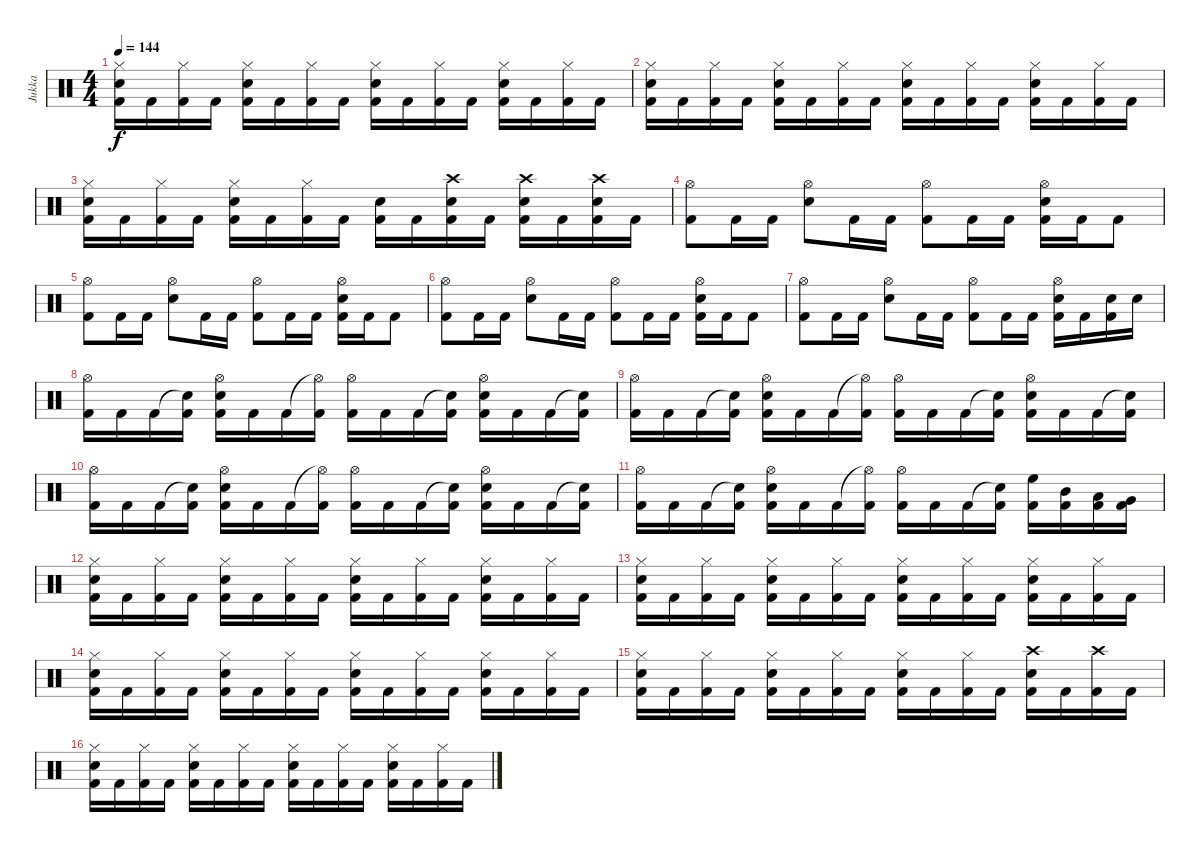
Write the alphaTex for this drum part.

\track ("Jukka" "Jukka") {instrument percussion}
\staff {score}
\articulation defaults
\ts (4 4)
\tempo 144
\clef neutral
\ks c
("Hi-Hat (closed)" "Electric Snare (hit)" "Kick (hit) 2").16{dy f} "Kick (hit) 2".16 ("Hi-Hat (closed)" "Kick (hit) 2").16 "Kick (hit) 2".16 ("Hi-Hat (closed)" "Electric Snare (hit)" "Kick (hit) 2").16 "Kick (hit) 2".16 ("Hi-Hat (closed)" "Kick (hit) 2").16 "Kick (hit) 2".16 ("Hi-Hat (closed)" "Electric Snare (hit)" "Kick (hit) 2").16 "Kick (hit) 2".16 ("Hi-Hat (closed)" "Kick (hit) 2").16 "Kick (hit) 2".16 ("Hi-Hat (closed)" "Electric Snare (hit)" "Kick (hit) 2").16 "Kick (hit) 2".16 ("Hi-Hat (closed)" "Kick (hit) 2").16 "Kick (hit) 2".16 |
("Hi-Hat (closed)" "Electric Snare (hit)" "Kick (hit) 2").16 "Kick (hit) 2".16 ("Hi-Hat (closed)" "Kick (hit) 2").16 "Kick (hit) 2".16 ("Hi-Hat (closed)" "Electric Snare (hit)" "Kick (hit) 2").16 "Kick (hit) 2".16 ("Hi-Hat (closed)" "Kick (hit) 2").16 "Kick (hit) 2".16 ("Hi-Hat (closed)" "Electric Snare (hit)" "Kick (hit) 2").16 "Kick (hit) 2".16 ("Hi-Hat (closed)" "Kick (hit) 2").16 "Kick (hit) 2".16 ("Hi-Hat (closed)" "Electric Snare (hit)" "Kick (hit) 2").16 "Kick (hit) 2".16 ("Hi-Hat (closed)" "Kick (hit) 2").16 "Kick (hit) 2".16 |
("Hi-Hat (closed)" "Electric Snare (hit)" "Kick (hit) 2").16 "Kick (hit) 2".16 ("Hi-Hat (closed)" "Kick (hit) 2").16 "Kick (hit) 2".16 ("Hi-Hat (closed)" "Electric Snare (hit)" "Kick (hit) 2").16 "Kick (hit) 2".16 ("Hi-Hat (closed)" "Kick (hit) 2").16 "Kick (hit) 2".16 ("Electric Snare (hit)" "Kick (hit) 2").16 "Kick (hit) 2".16 ("Crash high (hit)" "Electric Snare (hit)" "Kick (hit) 2").16 "Kick (hit) 2".16 ("Crash high (hit)" "Electric Snare (hit)" "Kick (hit) 2").16 "Kick (hit) 2".16 ("Crash high (hit)" "Electric Snare (hit)" "Kick (hit) 2").16 "Kick (hit) 2".16 |
("Hi-Hat (open)" "Kick (hit) 2").8 "Kick (hit) 2".16 "Kick (hit) 2".16 ("Hi-Hat (open)" "Electric Snare (hit)").8 "Kick (hit) 2".16 "Kick (hit) 2".16 ("Hi-Hat (open)" "Kick (hit) 2").8 "Kick (hit) 2".16 "Kick (hit) 2".16 ("Hi-Hat (open)" "Electric Snare (hit)" "Kick (hit) 2").16 "Kick (hit) 2".16 "Kick (hit) 2".8 |
("Hi-Hat (open)" "Kick (hit) 2").8 "Kick (hit) 2".16 "Kick (hit) 2".16 ("Hi-Hat (open)" "Electric Snare (hit)").8 "Kick (hit) 2".16 "Kick (hit) 2".16 ("Hi-Hat (open)" "Kick (hit) 2").8 "Kick (hit) 2".16 "Kick (hit) 2".16 ("Hi-Hat (open)" "Electric Snare (hit)" "Kick (hit) 2").16 "Kick (hit) 2".16 "Kick (hit) 2".8 |
("Hi-Hat (open)" "Kick (hit) 2").8 "Kick (hit) 2".16 "Kick (hit) 2".16 ("Hi-Hat (open)" "Electric Snare (hit)").8 "Kick (hit) 2".16 "Kick (hit) 2".16 ("Hi-Hat (open)" "Kick (hit) 2").8 "Kick (hit) 2".16 "Kick (hit) 2".16 ("Hi-Hat (open)" "Electric Snare (hit)" "Kick (hit) 2").16 "Kick (hit) 2".16 "Kick (hit) 2".8 |
("Hi-Hat (open)" "Kick (hit) 2").8 "Kick (hit) 2".16 "Kick (hit) 2".16 ("Hi-Hat (open)" "Electric Snare (hit)").8 "Kick (hit) 2".16 "Kick (hit) 2".16 ("Hi-Hat (open)" "Kick (hit) 2").8 "Kick (hit) 2".16 "Kick (hit) 2".16 ("Hi-Hat (open)" "Electric Snare (hit)" "Kick (hit) 2").16 "Kick (hit) 2".16 ("Electric Snare (hit)" "Kick (hit) 2").16 "Electric Snare (hit)".16 |
("Hi-Hat (open)" "Kick (hit) 2").16 "Kick (hit) 2".16 "Kick (hit) 2".16 ("Snare (hit)"{t} "Kick (hit) 2").16 ("Hi-Hat (open)" "Electric Snare (hit)" "Kick (hit) 2").16 "Kick (hit) 2".16 "Kick (hit) 2".16 ("Hi-Hat (open)"{t} "Kick (hit) 2").16 ("Hi-Hat (open)" "Kick (hit) 2").16 "Kick (hit) 2".16 "Kick (hit) 2".16 ("Snare (hit)"{t} "Kick (hit) 2").16 ("Hi-Hat (open)" "Electric Snare (hit)" "Kick (hit) 2").16 "Kick (hit) 2".16 "Kick (hit) 2".16 ("Snare (hit)"{t} "Kick (hit) 2").16 |
("Hi-Hat (open)" "Kick (hit) 2").16 "Kick (hit) 2".16 "Kick (hit) 2".16 ("Snare (hit)"{t} "Kick (hit) 2").16 ("Hi-Hat (open)" "Electric Snare (hit)" "Kick (hit) 2").16 "Kick (hit) 2".16 "Kick (hit) 2".16 ("Hi-Hat (open)"{t} "Kick (hit) 2").16 ("Hi-Hat (open)" "Kick (hit) 2").16 "Kick (hit) 2".16 "Kick (hit) 2".16 ("Snare (hit)"{t} "Kick (hit) 2").16 ("Hi-Hat (open)" "Electric Snare (hit)" "Kick (hit) 2").16 "Kick (hit) 2".16 "Kick (hit) 2".16 ("Snare (hit)"{t} "Kick (hit) 2").16 |
("Hi-Hat (open)" "Kick (hit) 2").16 "Kick (hit) 2".16 "Kick (hit) 2".16 ("Snare (hit)"{t} "Kick (hit) 2").16 ("Hi-Hat (open)" "Electric Snare (hit)" "Kick (hit) 2").16 "Kick (hit) 2".16 "Kick (hit) 2".16 ("Hi-Hat (open)"{t} "Kick (hit) 2").16 ("Hi-Hat (open)" "Kick (hit) 2").16 "Kick (hit) 2".16 "Kick (hit) 2".16 ("Snare (hit)"{t} "Kick (hit) 2").16 ("Hi-Hat (open)" "Electric Snare (hit)" "Kick (hit) 2").16 "Kick (hit) 2".16 "Kick (hit) 2".16 ("Snare (hit)"{t} "Kick (hit) 2").16 |
("Hi-Hat (open)" "Kick (hit) 2").16 "Kick (hit) 2".16 "Kick (hit) 2".16 ("Snare (hit)"{t} "Kick (hit) 2").16 ("Hi-Hat (open)" "Electric Snare (hit)" "Kick (hit) 2").16 "Kick (hit) 2".16 "Kick (hit) 2".16 ("Hi-Hat (open)"{t} "Kick (hit) 2").16 ("Hi-Hat (open)" "Kick (hit) 2").16 "Kick (hit) 2".16 "Kick (hit) 2".16 ("Snare (hit)"{t} "Kick (hit) 2").16 ("High Floor Tom (hit)" "Kick (hit) 2").16 ("Mid Tom (hit)" "Kick (hit) 2").16 ("Low Tom (hit)" "Kick (hit) 2").16 ("Very Low Tom (hit)" "Kick (hit) 2").16 |
("Hi-Hat (closed)" "Electric Snare (hit)" "Kick (hit) 2").16 "Kick (hit) 2".16 ("Hi-Hat (closed)" "Kick (hit) 2").16 "Kick (hit) 2".16 ("Hi-Hat (closed)" "Electric Snare (hit)" "Kick (hit) 2").16 "Kick (hit) 2".16 ("Hi-Hat (closed)" "Kick (hit) 2").16 "Kick (hit) 2".16 ("Hi-Hat (closed)" "Electric Snare (hit)" "Kick (hit) 2").16 "Kick (hit) 2".16 ("Hi-Hat (closed)" "Kick (hit) 2").16 "Kick (hit) 2".16 ("Hi-Hat (closed)" "Electric Snare (hit)" "Kick (hit) 2").16 "Kick (hit) 2".16 ("Hi-Hat (closed)" "Kick (hit) 2").16 "Kick (hit) 2".16 |
("Hi-Hat (closed)" "Electric Snare (hit)" "Kick (hit) 2").16 "Kick (hit) 2".16 ("Hi-Hat (closed)" "Kick (hit) 2").16 "Kick (hit) 2".16 ("Hi-Hat (closed)" "Electric Snare (hit)" "Kick (hit) 2").16 "Kick (hit) 2".16 ("Hi-Hat (closed)" "Kick (hit) 2").16 "Kick (hit) 2".16 ("Hi-Hat (closed)" "Electric Snare (hit)" "Kick (hit) 2").16 "Kick (hit) 2".16 ("Hi-Hat (closed)" "Kick (hit) 2").16 "Kick (hit) 2".16 ("Hi-Hat (closed)" "Electric Snare (hit)" "Kick (hit) 2").16 "Kick (hit) 2".16 ("Hi-Hat (closed)" "Kick (hit) 2").16 "Kick (hit) 2".16 |
("Hi-Hat (closed)" "Electric Snare (hit)" "Kick (hit) 2").16 "Kick (hit) 2".16 ("Hi-Hat (closed)" "Kick (hit) 2").16 "Kick (hit) 2".16 ("Hi-Hat (closed)" "Electric Snare (hit)" "Kick (hit) 2").16 "Kick (hit) 2".16 ("Hi-Hat (closed)" "Kick (hit) 2").16 "Kick (hit) 2".16 ("Hi-Hat (closed)" "Electric Snare (hit)" "Kick (hit) 2").16 "Kick (hit) 2".16 ("Hi-Hat (closed)" "Kick (hit) 2").16 "Kick (hit) 2".16 ("Hi-Hat (closed)" "Electric Snare (hit)" "Kick (hit) 2").16 "Kick (hit) 2".16 ("Hi-Hat (closed)" "Kick (hit) 2").16 "Kick (hit) 2".16 |
("Hi-Hat (closed)" "Electric Snare (hit)" "Kick (hit) 2").16 "Kick (hit) 2".16 ("Hi-Hat (closed)" "Kick (hit) 2").16 "Kick (hit) 2".16 ("Hi-Hat (closed)" "Electric Snare (hit)" "Kick (hit) 2").16 "Kick (hit) 2".16 ("Hi-Hat (closed)" "Kick (hit) 2").16 "Kick (hit) 2".16 ("Hi-Hat (closed)" "Electric Snare (hit)" "Kick (hit) 2").16 "Kick (hit) 2".16 ("Hi-Hat (closed)" "Kick (hit) 2").16 "Kick (hit) 2".16 ("Crash high (hit)" "Electric Snare (hit)" "Kick (hit) 2").16 "Kick (hit) 2".16 ("Crash high (hit)" "Kick (hit) 2").16 "Kick (hit) 2".16 |
("Hi-Hat (closed)" "Electric Snare (hit)" "Kick (hit) 2").16 "Kick (hit) 2".16 ("Hi-Hat (closed)" "Kick (hit) 2").16 "Kick (hit) 2".16 ("Hi-Hat (closed)" "Electric Snare (hit)" "Kick (hit) 2").16 "Kick (hit) 2".16 ("Hi-Hat (closed)" "Kick (hit) 2").16 "Kick (hit) 2".16 ("Hi-Hat (closed)" "Electric Snare (hit)" "Kick (hit) 2").16 "Kick (hit) 2".16 ("Hi-Hat (closed)" "Kick (hit) 2").16 "Kick (hit) 2".16 ("Hi-Hat (closed)" "Electric Snare (hit)" "Kick (hit) 2").16 "Kick (hit) 2".16 ("Hi-Hat (closed)" "Kick (hit) 2").16 "Kick (hit) 2".16
